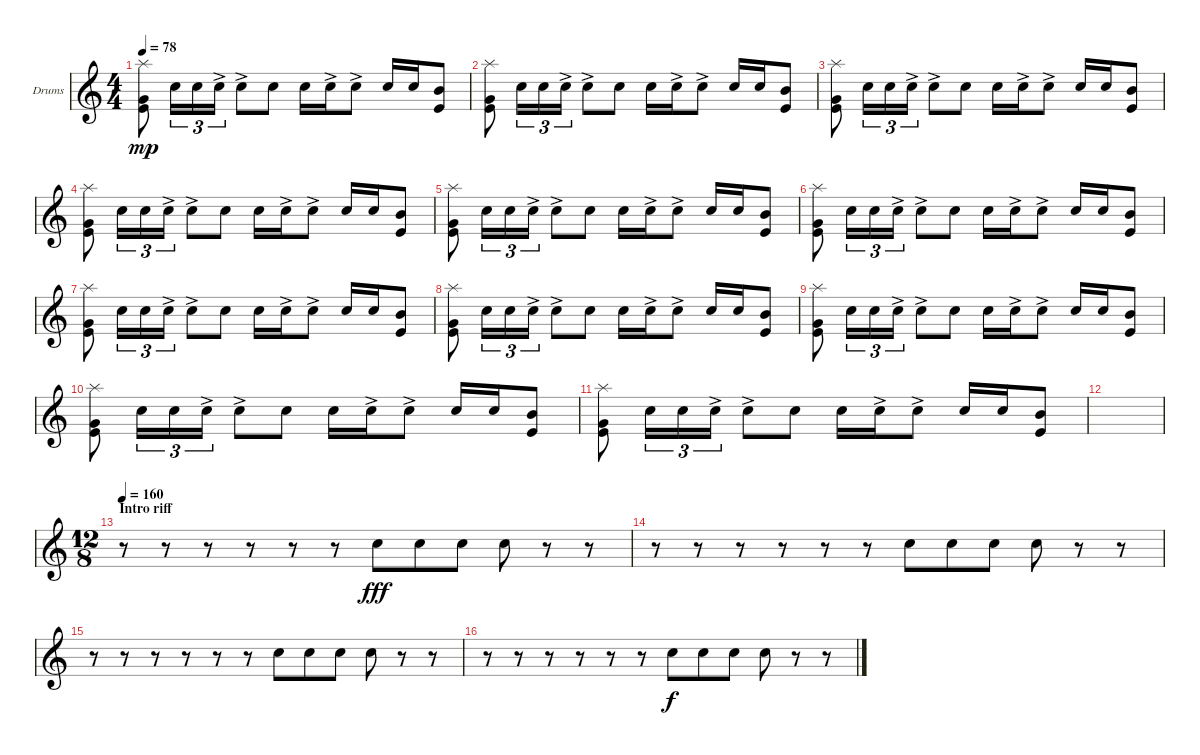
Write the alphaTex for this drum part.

\defaultSystemsLayout 4
\bracketExtendMode groupsimilarinstruments
\firstSystemTrackNameOrientation horizontal
\otherSystemsTrackNameOrientation horizontal
\track ("Dom" "Drums") {instrument percussion}
\staff {score}
\articulation defaults
\ts (4 4)
\tempo 78
\clef g2
\ks c
("Splash (hit)" "Kick (hit)" "Very Low Tom (hit)").8{dy mp} "Snare (hit) 2".16{tu (3 2)} "Snare (hit) 2".16{tu (3 2)} "Snare (hit) 2"{ac}.16{tu (3 2)} "Snare (hit) 2"{ac}.8 "Snare (hit) 2".8 "Snare (hit) 2".16 "Snare (hit) 2"{ac}.16 "Snare (hit) 2"{ac}.8 "Snare (hit) 2".16 "Snare (hit) 2".16 ("Kick (hit)" "Mid Tom (hit)").8 |
("Splash (hit)" "Kick (hit)" "Very Low Tom (hit)").8 "Snare (hit) 2".16{tu (3 2)} "Snare (hit) 2".16{tu (3 2)} "Snare (hit) 2"{ac}.16{tu (3 2)} "Snare (hit) 2"{ac}.8 "Snare (hit) 2".8 "Snare (hit) 2".16 "Snare (hit) 2"{ac}.16 "Snare (hit) 2"{ac}.8 "Snare (hit) 2".16 "Snare (hit) 2".16 ("Kick (hit)" "Mid Tom (hit)").8 |
("Splash (hit)" "Kick (hit)" "Very Low Tom (hit)").8 "Snare (hit) 2".16{tu (3 2)} "Snare (hit) 2".16{tu (3 2)} "Snare (hit) 2"{ac}.16{tu (3 2)} "Snare (hit) 2"{ac}.8 "Snare (hit) 2".8 "Snare (hit) 2".16 "Snare (hit) 2"{ac}.16 "Snare (hit) 2"{ac}.8 "Snare (hit) 2".16 "Snare (hit) 2".16 ("Kick (hit)" "Mid Tom (hit)").8 |
("Splash (hit)" "Kick (hit)" "Very Low Tom (hit)").8 "Snare (hit) 2".16{tu (3 2)} "Snare (hit) 2".16{tu (3 2)} "Snare (hit) 2"{ac}.16{tu (3 2)} "Snare (hit) 2"{ac}.8 "Snare (hit) 2".8 "Snare (hit) 2".16 "Snare (hit) 2"{ac}.16 "Snare (hit) 2"{ac}.8 "Snare (hit) 2".16 "Snare (hit) 2".16 ("Kick (hit)" "Mid Tom (hit)").8 |
("Splash (hit)" "Kick (hit)" "Very Low Tom (hit)").8 "Snare (hit) 2".16{tu (3 2)} "Snare (hit) 2".16{tu (3 2)} "Snare (hit) 2"{ac}.16{tu (3 2)} "Snare (hit) 2"{ac}.8 "Snare (hit) 2".8 "Snare (hit) 2".16 "Snare (hit) 2"{ac}.16 "Snare (hit) 2"{ac}.8 "Snare (hit) 2".16 "Snare (hit) 2".16 ("Kick (hit)" "Mid Tom (hit)").8 |
("Splash (hit)" "Kick (hit)" "Very Low Tom (hit)").8 "Snare (hit) 2".16{tu (3 2)} "Snare (hit) 2".16{tu (3 2)} "Snare (hit) 2"{ac}.16{tu (3 2)} "Snare (hit) 2"{ac}.8 "Snare (hit) 2".8 "Snare (hit) 2".16 "Snare (hit) 2"{ac}.16 "Snare (hit) 2"{ac}.8 "Snare (hit) 2".16 "Snare (hit) 2".16 ("Kick (hit)" "Mid Tom (hit)").8 |
("Splash (hit)" "Kick (hit)" "Very Low Tom (hit)").8 "Snare (hit) 2".16{tu (3 2)} "Snare (hit) 2".16{tu (3 2)} "Snare (hit) 2"{ac}.16{tu (3 2)} "Snare (hit) 2"{ac}.8 "Snare (hit) 2".8 "Snare (hit) 2".16 "Snare (hit) 2"{ac}.16 "Snare (hit) 2"{ac}.8 "Snare (hit) 2".16 "Snare (hit) 2".16 ("Kick (hit)" "Mid Tom (hit)").8 |
("Splash (hit)" "Kick (hit)" "Very Low Tom (hit)").8 "Snare (hit) 2".16{tu (3 2)} "Snare (hit) 2".16{tu (3 2)} "Snare (hit) 2"{ac}.16{tu (3 2)} "Snare (hit) 2"{ac}.8 "Snare (hit) 2".8 "Snare (hit) 2".16 "Snare (hit) 2"{ac}.16 "Snare (hit) 2"{ac}.8 "Snare (hit) 2".16 "Snare (hit) 2".16 ("Kick (hit)" "Mid Tom (hit)").8 |
("Splash (hit)" "Kick (hit)" "Very Low Tom (hit)").8 "Snare (hit) 2".16{tu (3 2)} "Snare (hit) 2".16{tu (3 2)} "Snare (hit) 2"{ac}.16{tu (3 2)} "Snare (hit) 2"{ac}.8 "Snare (hit) 2".8 "Snare (hit) 2".16 "Snare (hit) 2"{ac}.16 "Snare (hit) 2"{ac}.8 "Snare (hit) 2".16 "Snare (hit) 2".16 ("Kick (hit)" "Mid Tom (hit)").8 |
("Splash (hit)" "Kick (hit)" "Very Low Tom (hit)").8 "Snare (hit) 2".16{tu (3 2)} "Snare (hit) 2".16{tu (3 2)} "Snare (hit) 2"{ac}.16{tu (3 2)} "Snare (hit) 2"{ac}.8 "Snare (hit) 2".8 "Snare (hit) 2".16 "Snare (hit) 2"{ac}.16 "Snare (hit) 2"{ac}.8 "Snare (hit) 2".16 "Snare (hit) 2".16 ("Kick (hit)" "Mid Tom (hit)").8 |
("Splash (hit)" "Kick (hit)" "Very Low Tom (hit)").8 "Snare (hit) 2".16{tu (3 2)} "Snare (hit) 2".16{tu (3 2)} "Snare (hit) 2"{ac}.16{tu (3 2)} "Snare (hit) 2"{ac}.8 "Snare (hit) 2".8 "Snare (hit) 2".16 "Snare (hit) 2"{ac}.16 "Snare (hit) 2"{ac}.8 "Snare (hit) 2".16 "Snare (hit) 2".16 ("Kick (hit)" "Mid Tom (hit)").8 |
|
\ts (12 8)
\section ("" "Intro riff")
\tempo 160
r.8 r.8 r.8 r.8 r.8 r.8 "Snare (hit) 2".8{dy fff} "Snare (hit) 2".8 "Snare (hit) 2".8 "Snare (hit) 2".8 r.8 r.8 |
r.8 r.8 r.8 r.8 r.8 r.8 "Snare (hit) 2".8 "Snare (hit) 2".8 "Snare (hit) 2".8 "Snare (hit) 2".8 r.8 r.8 |
r.8 r.8 r.8 r.8 r.8 r.8 "Snare (hit) 2".8 "Snare (hit) 2".8 "Snare (hit) 2".8 "Snare (hit) 2".8 r.8 r.8 |
r.8 r.8 r.8 r.8 r.8 r.8 "Snare (hit) 2".8{dy f} "Snare (hit) 2".8 "Snare (hit) 2".8 "Snare (hit) 2".8 r.8 r.8
